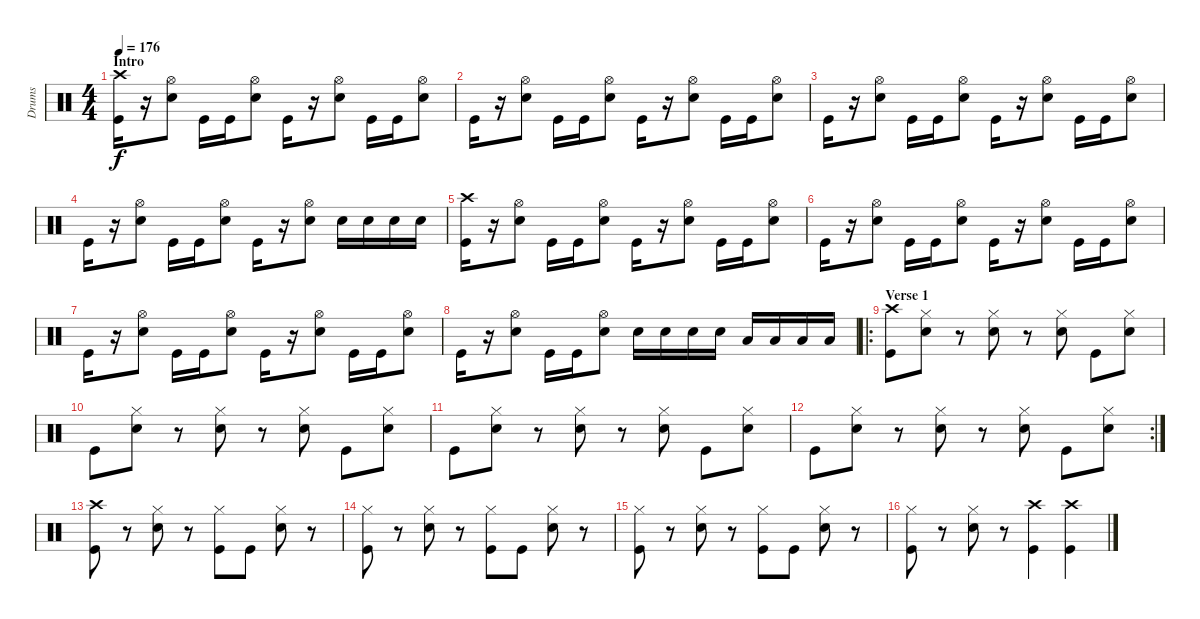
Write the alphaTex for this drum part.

\track ("Drums" "Drums") {instrument percussion}
\staff {score}
\articulation defaults
\ts (4 4)
\section ("" "Intro")
\tempo 176
\clef neutral
\ks c
("Crash high (hit)" "Kick (hit)").16{dy f} r.16 ("Hi-Hat (open)" "Snare (hit) 2").8 "Kick (hit)".16 "Kick (hit)".16 ("Hi-Hat (open)" "Snare (hit) 2").8 "Kick (hit)".16 r.16 ("Hi-Hat (open)" "Snare (hit) 2").8 "Kick (hit)".16 "Kick (hit)".16 ("Hi-Hat (open)" "Snare (hit) 2").8 |
"Kick (hit)".16 r.16 ("Hi-Hat (open)" "Snare (hit) 2").8 "Kick (hit)".16 "Kick (hit)".16 ("Hi-Hat (open)" "Snare (hit) 2").8 "Kick (hit)".16 r.16 ("Hi-Hat (open)" "Snare (hit) 2").8 "Kick (hit)".16 "Kick (hit)".16 ("Hi-Hat (open)" "Snare (hit) 2").8 |
"Kick (hit)".16 r.16 ("Hi-Hat (open)" "Snare (hit) 2").8 "Kick (hit)".16 "Kick (hit)".16 ("Hi-Hat (open)" "Snare (hit) 2").8 "Kick (hit)".16 r.16 ("Hi-Hat (open)" "Snare (hit) 2").8 "Kick (hit)".16 "Kick (hit)".16 ("Hi-Hat (open)" "Snare (hit) 2").8 |
"Kick (hit)".16 r.16 ("Hi-Hat (open)" "Snare (hit) 2").8 "Kick (hit)".16 "Kick (hit)".16 ("Hi-Hat (open)" "Snare (hit) 2").8 "Kick (hit)".16 r.16 ("Hi-Hat (open)" "Snare (hit) 2").8 "Snare (hit) 2".16 "Snare (hit) 2".16 "Snare (hit) 2".16 "Snare (hit) 2".16 |
("Crash high (hit)" "Kick (hit)").16 r.16 ("Hi-Hat (open)" "Snare (hit) 2").8 "Kick (hit)".16 "Kick (hit)".16 ("Hi-Hat (open)" "Snare (hit) 2").8 "Kick (hit)".16 r.16 ("Hi-Hat (open)" "Snare (hit) 2").8 "Kick (hit)".16 "Kick (hit)".16 ("Hi-Hat (open)" "Snare (hit) 2").8 |
"Kick (hit)".16 r.16 ("Hi-Hat (open)" "Snare (hit) 2").8 "Kick (hit)".16 "Kick (hit)".16 ("Hi-Hat (open)" "Snare (hit) 2").8 "Kick (hit)".16 r.16 ("Hi-Hat (open)" "Snare (hit) 2").8 "Kick (hit)".16 "Kick (hit)".16 ("Hi-Hat (open)" "Snare (hit) 2").8 |
"Kick (hit)".16 r.16 ("Hi-Hat (open)" "Snare (hit) 2").8 "Kick (hit)".16 "Kick (hit)".16 ("Hi-Hat (open)" "Snare (hit) 2").8 "Kick (hit)".16 r.16 ("Hi-Hat (open)" "Snare (hit) 2").8 "Kick (hit)".16 "Kick (hit)".16 ("Hi-Hat (open)" "Snare (hit) 2").8 |
"Kick (hit)".16 r.16 ("Hi-Hat (open)" "Snare (hit) 2").8 "Kick (hit)".16 "Kick (hit)".16 ("Hi-Hat (open)" "Snare (hit) 2").8 "Snare (hit) 2".16 "Snare (hit) 2".16 "Snare (hit) 2".16 "Snare (hit) 2".16 "Low Tom (hit)".16 "Low Tom (hit)".16 "Low Floor Tom (hit)".16 "Low Floor Tom (hit)".16 |
\ro
\section ("" "Verse 1")
("Crash high (hit)" "Kick (hit)").8 ("Hi-Hat (closed)" "Snare (hit) 2").8 r.8 ("Hi-Hat (closed)" "Snare (hit) 2").8 r.8 ("Hi-Hat (closed)" "Snare (hit) 2").8 "Kick (hit)".8 ("Hi-Hat (closed)" "Snare (hit) 2").8 |
"Kick (hit)".8 ("Hi-Hat (closed)" "Snare (hit) 2").8 r.8 ("Hi-Hat (closed)" "Snare (hit) 2").8 r.8 ("Hi-Hat (closed)" "Snare (hit) 2").8 "Kick (hit)".8 ("Hi-Hat (closed)" "Snare (hit) 2").8 |
"Kick (hit)".8 ("Hi-Hat (closed)" "Snare (hit) 2").8 r.8 ("Hi-Hat (closed)" "Snare (hit) 2").8 r.8 ("Hi-Hat (closed)" "Snare (hit) 2").8 "Kick (hit)".8 ("Hi-Hat (closed)" "Snare (hit) 2").8 |
\rc 2 "Kick (hit)".8
("Hi-Hat (closed)" "Snare (hit) 2").8 r.8 ("Hi-Hat (closed)" "Snare (hit) 2").8 r.8 ("Hi-Hat (closed)" "Snare (hit) 2").8 "Kick (hit)".8 ("Hi-Hat (closed)" "Snare (hit) 2").8 |
("Crash high (hit)" "Kick (hit)").8 r.8 ("Hi-Hat (closed)" "Snare (hit) 2").8 r.8 ("Hi-Hat (closed)" "Kick (hit)").8 "Kick (hit)".8 ("Hi-Hat (closed)" "Snare (hit) 2").8 r.8 |
("Hi-Hat (closed)" "Kick (hit)").8 r.8 ("Hi-Hat (closed)" "Snare (hit) 2").8 r.8 ("Hi-Hat (closed)" "Kick (hit)").8 "Kick (hit)".8 ("Hi-Hat (closed)" "Snare (hit) 2").8 r.8 |
("Hi-Hat (closed)" "Kick (hit)").8 r.8 ("Hi-Hat (closed)" "Snare (hit) 2").8 r.8 ("Hi-Hat (closed)" "Kick (hit)").8 "Kick (hit)".8 ("Hi-Hat (closed)" "Snare (hit) 2").8 r.8 |
("Hi-Hat (closed)" "Kick (hit)").8 r.8 ("Hi-Hat (closed)" "Snare (hit) 2").8 r.8 ("Crash high (hit)" "Kick (hit)").4 ("Crash high (hit)" "Kick (hit)").4
